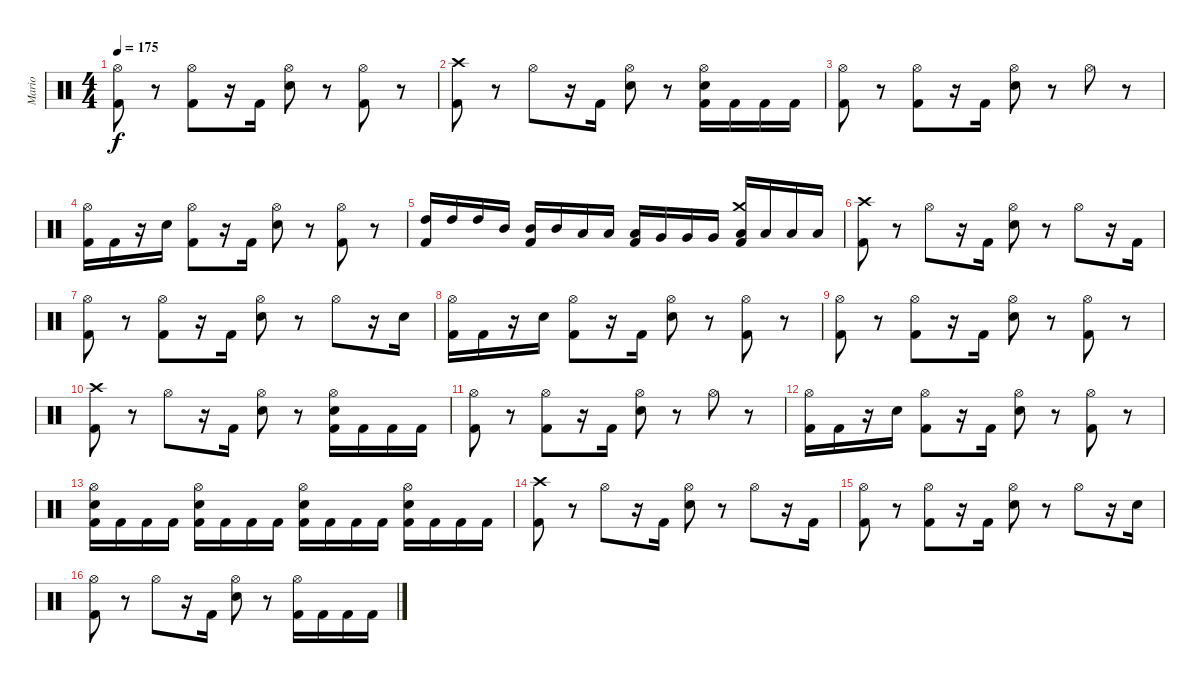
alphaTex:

\track ("Mario" "Mario") {instrument percussion}
\staff {score}
\articulation defaults
\ts (4 4)
\tempo 175
\clef neutral
\ks c
("Hi-Hat (open)" "Kick (hit) 2").8{dy f} r.8 ("Hi-Hat (open)" "Kick (hit) 2").8 r.16 "Kick (hit) 2".16 ("Hi-Hat (open)" "Electric Snare (hit)").8 r.8 ("Hi-Hat (open)" "Kick (hit) 2").8 r.8 |
("Crash high (hit)" "Kick (hit) 2").8 r.8 "Hi-Hat (open)".8 r.16 "Kick (hit) 2".16 ("Hi-Hat (open)" "Electric Snare (hit)").8 r.8 ("Hi-Hat (open)" "Electric Snare (hit)" "Kick (hit) 2").16 "Kick (hit) 2".16 "Kick (hit) 2".16 "Kick (hit) 2".16 |
("Hi-Hat (open)" "Kick (hit) 2").8 r.8 ("Hi-Hat (open)" "Kick (hit) 2").8 r.16 "Kick (hit) 2".16 ("Hi-Hat (open)" "Electric Snare (hit)").8 r.8 "Hi-Hat (open)".8 r.8 |
("Hi-Hat (open)" "Kick (hit) 2").16 "Kick (hit) 2".16 r.16 "Electric Snare (hit)".16 ("Hi-Hat (open)" "Kick (hit) 2").8 r.16 "Kick (hit) 2".16 ("Hi-Hat (open)" "Electric Snare (hit)").8 r.8 ("Hi-Hat (open)" "Kick (hit) 2").8 r.8 |
("High Tom (hit)" "Kick (hit) 2").16 "High Tom (hit)".16 "High Tom (hit)".16 "Mid Tom (hit)".16 ("Mid Tom (hit)" "Kick (hit) 2").16 "Mid Tom (hit)".16 "Low Tom (hit)".16 "Low Tom (hit)".16 ("Low Tom (hit)" "Kick (hit) 2").16 "Very Low Tom (hit)".16 "Very Low Tom (hit)".16 "Very Low Tom (hit)".16 ("Crash medium (hit)" "Low Floor Tom (hit)" "Kick (hit) 2").16 "Low Floor Tom (hit)".16 "Low Floor Tom (hit)".16 "Low Floor Tom (hit)".16 |
("Crash high (hit)" "Kick (hit) 2").8 r.8 "Hi-Hat (open)".8 r.16 "Kick (hit) 2".16 ("Hi-Hat (open)" "Electric Snare (hit)").8 r.8 "Hi-Hat (open)".8 r.16 "Kick (hit) 2".16 |
("Hi-Hat (open)" "Kick (hit) 2").8 r.8 ("Hi-Hat (open)" "Kick (hit) 2").8 r.16 "Kick (hit) 2".16 ("Hi-Hat (open)" "Electric Snare (hit)").8 r.8 "Hi-Hat (open)".8 r.16 "Electric Snare (hit)".16 |
("Hi-Hat (open)" "Kick (hit) 2").16 "Kick (hit) 2".16 r.16 "Electric Snare (hit)".16 ("Hi-Hat (open)" "Kick (hit) 2").8 r.16 "Kick (hit) 2".16 ("Hi-Hat (open)" "Electric Snare (hit)").8 r.8 ("Hi-Hat (open)" "Kick (hit) 2").8 r.8 |
("Hi-Hat (open)" "Kick (hit) 2").8 r.8 ("Hi-Hat (open)" "Kick (hit) 2").8 r.16 "Kick (hit) 2".16 ("Hi-Hat (open)" "Electric Snare (hit)").8 r.8 ("Hi-Hat (open)" "Kick (hit) 2").8 r.8 |
("Crash high (hit)" "Kick (hit) 2").8 r.8 "Hi-Hat (open)".8 r.16 "Kick (hit) 2".16 ("Hi-Hat (open)" "Electric Snare (hit)").8 r.8 ("Hi-Hat (open)" "Electric Snare (hit)" "Kick (hit) 2").16 "Kick (hit) 2".16 "Kick (hit) 2".16 "Kick (hit) 2".16 |
("Hi-Hat (open)" "Kick (hit) 2").8 r.8 ("Hi-Hat (open)" "Kick (hit) 2").8 r.16 "Kick (hit) 2".16 ("Hi-Hat (open)" "Electric Snare (hit)").8 r.8 "Hi-Hat (open)".8 r.8 |
("Hi-Hat (open)" "Kick (hit) 2").16 "Kick (hit) 2".16 r.16 "Electric Snare (hit)".16 ("Hi-Hat (open)" "Kick (hit) 2").8 r.16 "Kick (hit) 2".16 ("Hi-Hat (open)" "Electric Snare (hit)").8 r.8 ("Hi-Hat (open)" "Kick (hit) 2").8 r.8 |
("Hi-Hat (open)" "Electric Snare (hit)" "Kick (hit) 2").16 "Kick (hit) 2".16 "Kick (hit) 2".16 "Kick (hit) 2".16 ("Hi-Hat (open)" "Electric Snare (hit)" "Kick (hit) 2").16 "Kick (hit) 2".16 "Kick (hit) 2".16 "Kick (hit) 2".16 ("Hi-Hat (open)" "Electric Snare (hit)" "Kick (hit) 2").16 "Kick (hit) 2".16 "Kick (hit) 2".16 "Kick (hit) 2".16 ("Hi-Hat (open)" "Electric Snare (hit)" "Kick (hit) 2").16 "Kick (hit) 2".16 "Kick (hit) 2".16 "Kick (hit) 2".16 |
("Crash high (hit)" "Kick (hit) 2").8 r.8 "Hi-Hat (open)".8 r.16 "Kick (hit) 2".16 ("Hi-Hat (open)" "Electric Snare (hit)").8 r.8 "Hi-Hat (open)".8 r.16 "Kick (hit) 2".16 |
("Hi-Hat (open)" "Kick (hit) 2").8 r.8 ("Hi-Hat (open)" "Kick (hit) 2").8 r.16 "Kick (hit) 2".16 ("Hi-Hat (open)" "Electric Snare (hit)").8 r.8 "Hi-Hat (open)".8 r.16 "Electric Snare (hit)".16 |
("Hi-Hat (open)" "Kick (hit) 2").8 r.8 "Hi-Hat (open)".8 r.16 "Kick (hit) 2".16 ("Hi-Hat (open)" "Electric Snare (hit)").8 r.8 ("Hi-Hat (open)" "Kick (hit) 2").16 "Kick (hit) 2".16 "Kick (hit) 2".16 "Kick (hit) 2".16
